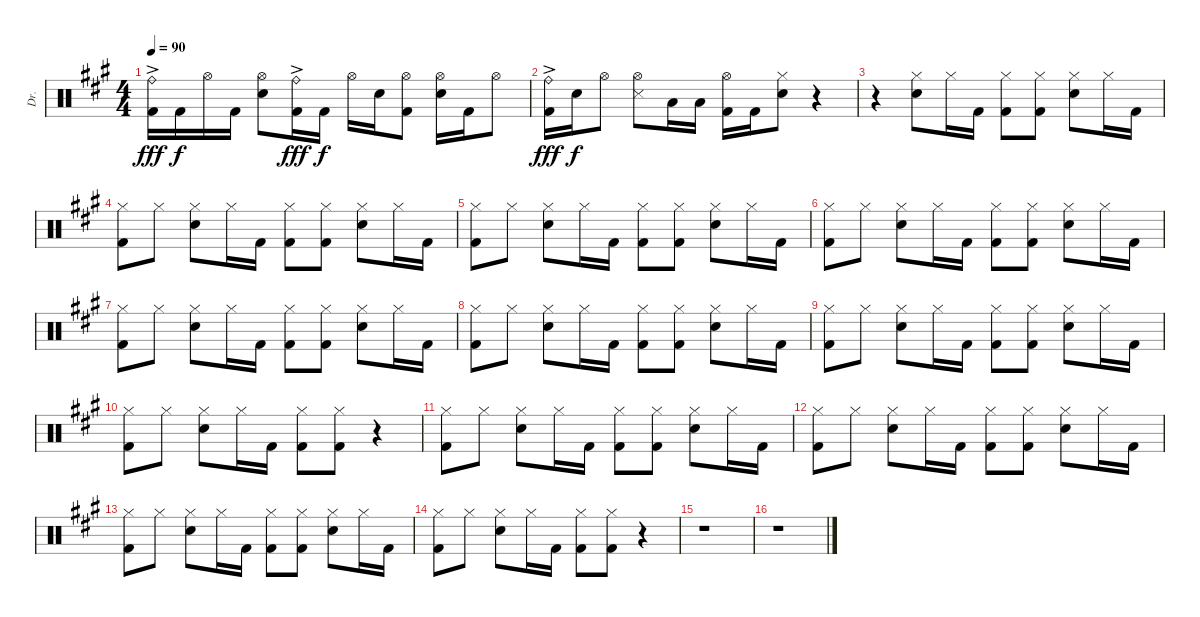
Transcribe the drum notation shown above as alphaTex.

\track ("Dr." "Dr.") {instrument percussion}
\staff {score}
\articulation defaults
\ts (4 4)
\tempo 90
\clef neutral
\ks a
("Ride (bell)"{ac} "Kick (hit) 2"{ac}).16{dy fff} "Kick (hit) 2".16{dy f} "Hi-Hat (open)".16 "Kick (hit) 2".16 ("Hi-Hat (open)" "Electric Snare (hit)").8 ("Ride (bell)"{ac} "Kick (hit) 2"{ac}).16{dy fff} "Kick (hit) 2".16{dy f} "Hi-Hat (open)".16 "Electric Snare (hit)".16 ("Hi-Hat (open)" "Kick (hit) 2").8 ("Hi-Hat (open)" "Electric Snare (hit)").16 "Kick (hit) 2".16 "Hi-Hat (open)".8 |
("Ride (bell)"{ac} "Kick (hit) 2").16{dy fff} "Electric Snare (hit)".16{dy f} "Hi-Hat (open)".8 ("Hi-Hat (open)" "Snare (side stick) 3").8 "Low Tom (hit)".16 "Low Tom (hit)".16 ("Hi-Hat (open)" "Kick (hit) 2").16 "Kick (hit) 2".16 ("Hi-Hat (closed)" "Electric Snare (hit)").8 r.4 |
r.4 ("Hi-Hat (closed)" "Electric Snare (hit)").8 "Hi-Hat (closed)".16 "Kick (hit) 2".16 ("Hi-Hat (closed)" "Kick (hit) 2").8 ("Hi-Hat (closed)" "Kick (hit) 2").8 ("Hi-Hat (closed)" "Electric Snare (hit)").8 "Hi-Hat (closed)".16 "Kick (hit) 2".16 |
("Hi-Hat (closed)" "Kick (hit) 2").8 "Hi-Hat (closed)".8 ("Hi-Hat (closed)" "Electric Snare (hit)").8 "Hi-Hat (closed)".16 "Kick (hit) 2".16 ("Hi-Hat (closed)" "Kick (hit) 2").8 ("Hi-Hat (closed)" "Kick (hit) 2").8 ("Hi-Hat (closed)" "Electric Snare (hit)").8 "Hi-Hat (closed)".16 "Kick (hit) 2".16 |
("Hi-Hat (closed)" "Kick (hit) 2").8 "Hi-Hat (closed)".8 ("Hi-Hat (closed)" "Electric Snare (hit)").8 "Hi-Hat (closed)".16 "Kick (hit) 2".16 ("Hi-Hat (closed)" "Kick (hit) 2").8 ("Hi-Hat (closed)" "Kick (hit) 2").8 ("Hi-Hat (closed)" "Electric Snare (hit)").8 "Hi-Hat (closed)".16 "Kick (hit) 2".16 |
("Hi-Hat (closed)" "Kick (hit) 2").8 "Hi-Hat (closed)".8 ("Hi-Hat (closed)" "Electric Snare (hit)").8 "Hi-Hat (closed)".16 "Kick (hit) 2".16 ("Hi-Hat (closed)" "Kick (hit) 2").8 ("Hi-Hat (closed)" "Kick (hit) 2").8 ("Hi-Hat (closed)" "Electric Snare (hit)").8 "Hi-Hat (closed)".16 "Kick (hit) 2".16 |
("Hi-Hat (closed)" "Kick (hit) 2").8 "Hi-Hat (closed)".8 ("Hi-Hat (closed)" "Electric Snare (hit)").8 "Hi-Hat (closed)".16 "Kick (hit) 2".16 ("Hi-Hat (closed)" "Kick (hit) 2").8 ("Hi-Hat (closed)" "Kick (hit) 2").8 ("Hi-Hat (closed)" "Electric Snare (hit)").8 "Hi-Hat (closed)".16 "Kick (hit) 2".16 |
("Hi-Hat (closed)" "Kick (hit) 2").8 "Hi-Hat (closed)".8 ("Hi-Hat (closed)" "Electric Snare (hit)").8 "Hi-Hat (closed)".16 "Kick (hit) 2".16 ("Hi-Hat (closed)" "Kick (hit) 2").8 ("Hi-Hat (closed)" "Kick (hit) 2").8 ("Hi-Hat (closed)" "Electric Snare (hit)").8 "Hi-Hat (closed)".16 "Kick (hit) 2".16 |
("Hi-Hat (closed)" "Kick (hit) 2").8 "Hi-Hat (closed)".8 ("Hi-Hat (closed)" "Electric Snare (hit)").8 "Hi-Hat (closed)".16 "Kick (hit) 2".16 ("Hi-Hat (closed)" "Kick (hit) 2").8 ("Hi-Hat (closed)" "Kick (hit) 2").8 ("Hi-Hat (closed)" "Electric Snare (hit)").8 "Hi-Hat (closed)".16 "Kick (hit) 2".16 |
("Hi-Hat (closed)" "Kick (hit) 2").8 "Hi-Hat (closed)".8 ("Hi-Hat (closed)" "Electric Snare (hit)").8 "Hi-Hat (closed)".16 "Kick (hit) 2".16 ("Hi-Hat (closed)" "Kick (hit) 2").8 ("Hi-Hat (closed)" "Kick (hit) 2").8 r.4 |
("Hi-Hat (closed)" "Kick (hit) 2").8 "Hi-Hat (closed)".8 ("Hi-Hat (closed)" "Electric Snare (hit)").8 "Hi-Hat (closed)".16 "Kick (hit) 2".16 ("Hi-Hat (closed)" "Kick (hit) 2").8 ("Hi-Hat (closed)" "Kick (hit) 2").8 ("Hi-Hat (closed)" "Electric Snare (hit)").8 "Hi-Hat (closed)".16 "Kick (hit) 2".16 |
("Hi-Hat (closed)" "Kick (hit) 2").8 "Hi-Hat (closed)".8 ("Hi-Hat (closed)" "Electric Snare (hit)").8 "Hi-Hat (closed)".16 "Kick (hit) 2".16 ("Hi-Hat (closed)" "Kick (hit) 2").8 ("Hi-Hat (closed)" "Kick (hit) 2").8 ("Hi-Hat (closed)" "Electric Snare (hit)").8 "Hi-Hat (closed)".16 "Kick (hit) 2".16 |
("Hi-Hat (closed)" "Kick (hit) 2").8 "Hi-Hat (closed)".8 ("Hi-Hat (closed)" "Electric Snare (hit)").8 "Hi-Hat (closed)".16 "Kick (hit) 2".16 ("Hi-Hat (closed)" "Kick (hit) 2").8 ("Hi-Hat (closed)" "Kick (hit) 2").8 ("Hi-Hat (closed)" "Electric Snare (hit)").8 "Hi-Hat (closed)".16 "Kick (hit) 2".16 |
("Hi-Hat (closed)" "Kick (hit) 2").8 "Hi-Hat (closed)".8 ("Hi-Hat (closed)" "Electric Snare (hit)").8 "Hi-Hat (closed)".16 "Kick (hit) 2".16 ("Hi-Hat (closed)" "Kick (hit) 2").8 ("Hi-Hat (closed)" "Kick (hit) 2").8 r.4 |
r.1 |
r.1
